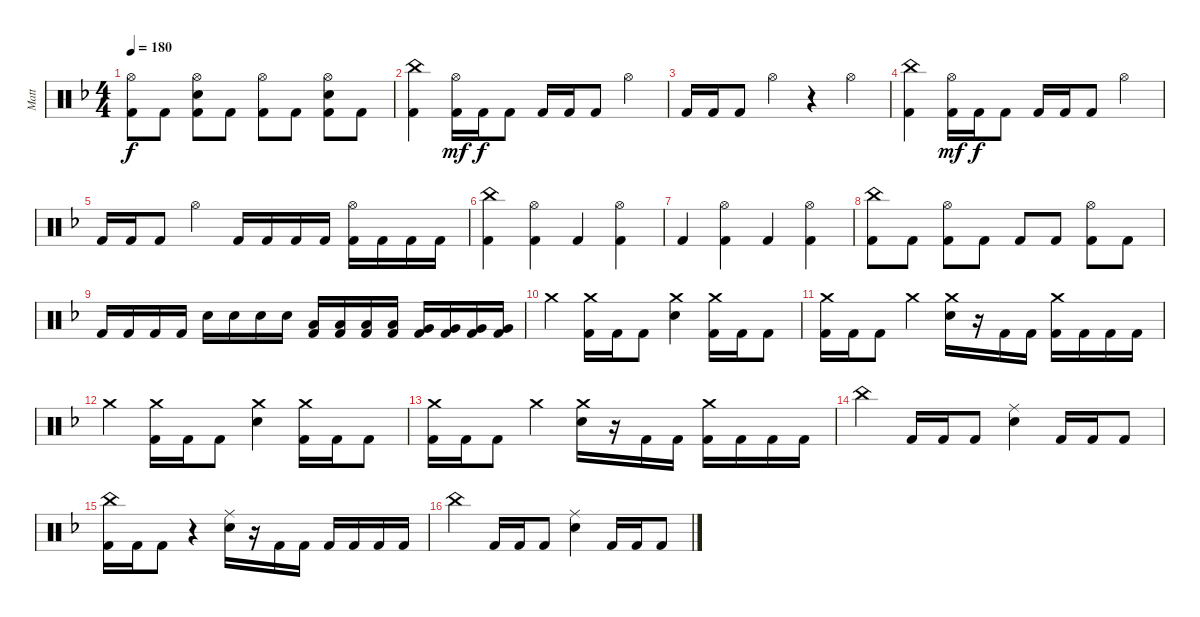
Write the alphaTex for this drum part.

\track ("Matt" "Matt") {instrument percussion}
\staff {score}
\articulation defaults
\ts (4 4)
\tempo 180
\clef neutral
\ks f
("Hi-Hat (open)" "Kick (hit) 2").8{dy f} "Kick (hit) 2".8 ("Hi-Hat (open)" "Electric Snare (hit)" "Kick (hit) 2").8 "Kick (hit) 2".8 ("Hi-Hat (open)" "Kick (hit) 2").8 "Kick (hit) 2".8 ("Hi-Hat (open)" "Electric Snare (hit)" "Kick (hit) 2").8 "Kick (hit) 2".8 |
("China (hit)" "Kick (hit) 2").4 ("Hi-Hat (open)" "Kick (hit) 2").16{dy mf} "Kick (hit) 2".16{dy f} "Kick (hit) 2".8 "Kick (hit) 2".16 "Kick (hit) 2".16 "Kick (hit) 2".8 "Hi-Hat (open)".4 |
"Kick (hit) 2".16 "Kick (hit) 2".16 "Kick (hit) 2".8 "Hi-Hat (open)".4 r.4 "Hi-Hat (open)".4 |
("China (hit)" "Kick (hit) 2").4 ("Hi-Hat (open)" "Kick (hit) 2").16{dy mf} "Kick (hit) 2".16{dy f} "Kick (hit) 2".8 "Kick (hit) 2".16 "Kick (hit) 2".16 "Kick (hit) 2".8 "Hi-Hat (open)".4 |
"Kick (hit) 2".16 "Kick (hit) 2".16 "Kick (hit) 2".8 "Hi-Hat (open)".4 "Kick (hit) 2".16 "Kick (hit) 2".16 "Kick (hit) 2".16 "Kick (hit) 2".16 ("Hi-Hat (open)" "Kick (hit) 2").16 "Kick (hit) 2".16 "Kick (hit) 2".16 "Kick (hit) 2".16 |
("China (hit)" "Kick (hit) 2").4 ("Hi-Hat (open)" "Kick (hit) 2").4 "Kick (hit) 2".4 ("Hi-Hat (open)" "Kick (hit) 2").4 |
"Kick (hit) 2".4 ("Hi-Hat (open)" "Kick (hit) 2").4 "Kick (hit) 2".4 ("Hi-Hat (open)" "Kick (hit) 2").4 |
("China (hit)" "Kick (hit) 2").8 "Kick (hit) 2".8 ("Hi-Hat (open)" "Kick (hit) 2").8 "Kick (hit) 2".8 "Kick (hit) 2".8 "Kick (hit) 2".8 ("Hi-Hat (open)" "Kick (hit) 2").8 "Kick (hit) 2".8 |
"Kick (hit) 2".16 "Kick (hit) 2".16 "Kick (hit) 2".16 "Kick (hit) 2".16 "Electric Snare (hit)".16 "Electric Snare (hit)".16 "Electric Snare (hit)".16 "Electric Snare (hit)".16 ("Low Tom (hit)" "Kick (hit) 2").16 ("Low Tom (hit)" "Kick (hit) 2").16 ("Low Tom (hit)" "Kick (hit) 2").16 ("Low Tom (hit)" "Kick (hit) 2").16 ("Very Low Tom (hit)" "Kick (hit) 2").16 ("Very Low Tom (hit)" "Kick (hit) 2").16 ("Very Low Tom (hit)" "Kick (hit) 2").16 ("Very Low Tom (hit)" "Kick (hit) 2").16 |
"Crash medium (hit)".4 ("Crash medium (hit)" "Kick (hit) 2").16 "Kick (hit) 2".16 "Kick (hit) 2".8 ("Crash medium (hit)" "Electric Snare (hit)").4 ("Crash medium (hit)" "Kick (hit) 2").16 "Kick (hit) 2".16 "Kick (hit) 2".8 |
("Crash medium (hit)" "Kick (hit) 2").16 "Kick (hit) 2".16 "Kick (hit) 2".8 "Crash medium (hit)".4 ("Crash medium (hit)" "Electric Snare (hit)").16 r.16 "Kick (hit) 2".16 "Kick (hit) 2".16 ("Crash medium (hit)" "Kick (hit) 2").16 "Kick (hit) 2".16 "Kick (hit) 2".16 "Kick (hit) 2".16 |
"Crash medium (hit)".4 ("Crash medium (hit)" "Kick (hit) 2").16 "Kick (hit) 2".16 "Kick (hit) 2".8 ("Crash medium (hit)" "Electric Snare (hit)").4 ("Crash medium (hit)" "Kick (hit) 2").16 "Kick (hit) 2".16 "Kick (hit) 2".8 |
("Crash medium (hit)" "Kick (hit) 2").16 "Kick (hit) 2".16 "Kick (hit) 2".8 "Crash medium (hit)".4 ("Crash medium (hit)" "Electric Snare (hit)").16 r.16 "Kick (hit) 2".16 "Kick (hit) 2".16 ("Crash medium (hit)" "Kick (hit) 2").16 "Kick (hit) 2".16 "Kick (hit) 2".16 "Kick (hit) 2".16 |
"China (hit)".4 "Kick (hit) 2".16 "Kick (hit) 2".16 "Kick (hit) 2".8 ("Ride (middle)" "Electric Snare (hit)").4 "Kick (hit) 2".16 "Kick (hit) 2".16 "Kick (hit) 2".8 |
("China (hit)" "Kick (hit) 2").16 "Kick (hit) 2".16 "Kick (hit) 2".8 r.4 ("Ride (middle)" "Electric Snare (hit)").16 r.16 "Kick (hit) 2".16 "Kick (hit) 2".16 "Kick (hit) 2".16 "Kick (hit) 2".16 "Kick (hit) 2".16 "Kick (hit) 2".16 |
"China (hit)".4 "Kick (hit) 2".16 "Kick (hit) 2".16 "Kick (hit) 2".8 ("Ride (middle)" "Electric Snare (hit)").4 "Kick (hit) 2".16 "Kick (hit) 2".16 "Kick (hit) 2".8
